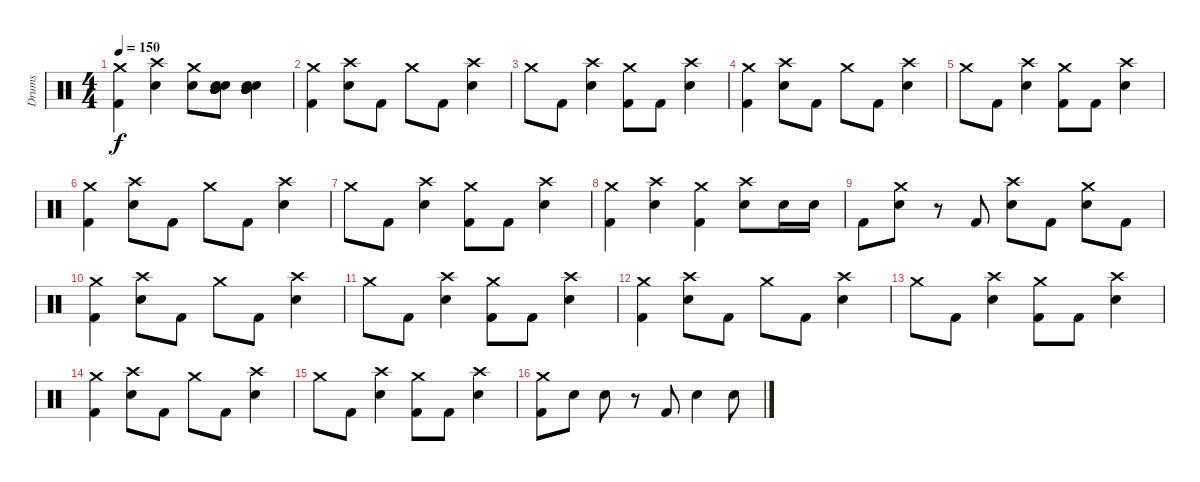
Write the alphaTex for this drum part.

\track ("Drums" "Drums") {instrument percussion}
\staff {score}
\articulation defaults
\ts (4 4)
\tempo 150
\clef neutral
\ks c
("Crash medium (hit)" "Kick (hit) 2").4{dy f} ("Crash high (hit)" "Snare (hit) 2").4 ("Crash medium (hit)" "Snare (hit) 2").8 ("Snare (hit) 2" "Electric Snare (hit)" "Mid Tom (hit)" "Mid Tom (hit)" "Mid Tom (hit)").8 ("Snare (hit) 2" "Electric Snare (hit)" "Mid Tom (hit)" "Mid Tom (hit)" "Mid Tom (hit)").4 |
("Crash medium (hit)" "Kick (hit) 2").4 ("Crash high (hit)" "Snare (hit) 2").8 "Kick (hit) 2".8 "Crash medium (hit)".8 "Kick (hit) 2".8 ("Crash high (hit)" "Snare (hit) 2").4 |
"Crash medium (hit)".8 "Kick (hit) 2".8 ("Crash high (hit)" "Snare (hit) 2").4 ("Crash medium (hit)" "Kick (hit) 2").8 "Kick (hit) 2".8 ("Crash high (hit)" "Snare (hit) 2").4 |
("Crash medium (hit)" "Kick (hit) 2").4 ("Crash high (hit)" "Snare (hit) 2").8 "Kick (hit) 2".8 "Crash medium (hit)".8 "Kick (hit) 2".8 ("Crash high (hit)" "Snare (hit) 2").4 |
"Crash medium (hit)".8 "Kick (hit) 2".8 ("Crash high (hit)" "Snare (hit) 2").4 ("Crash medium (hit)" "Kick (hit) 2").8 "Kick (hit) 2".8 ("Crash high (hit)" "Snare (hit) 2").4 |
("Crash medium (hit)" "Kick (hit) 2").4 ("Crash high (hit)" "Snare (hit) 2").8 "Kick (hit) 2".8 "Crash medium (hit)".8 "Kick (hit) 2".8 ("Crash high (hit)" "Snare (hit) 2").4 |
"Crash medium (hit)".8 "Kick (hit) 2".8 ("Crash high (hit)" "Snare (hit) 2").4 ("Crash medium (hit)" "Kick (hit) 2").8 "Kick (hit) 2".8 ("Crash high (hit)" "Snare (hit) 2").4 |
("Crash medium (hit)" "Kick (hit) 2").4 ("Crash high (hit)" "Snare (hit) 2").4 ("Crash medium (hit)" "Kick (hit) 2").4 ("Crash high (hit)" "Snare (hit) 2").8 "Snare (hit) 2".16 "Snare (hit) 2".16 |
"Kick (hit) 2".8 ("Crash medium (hit)" "Snare (hit) 2").8 r.8 "Kick (hit) 2".8 ("Crash high (hit)" "Snare (hit) 2").8 "Kick (hit) 2".8 ("Crash medium (hit)" "Snare (hit) 2").8 "Kick (hit) 2".8 |
("Crash medium (hit)" "Kick (hit) 2").4 ("Crash high (hit)" "Snare (hit) 2").8 "Kick (hit) 2".8 "Crash medium (hit)".8 "Kick (hit) 2".8 ("Crash high (hit)" "Snare (hit) 2").4 |
"Crash medium (hit)".8 "Kick (hit) 2".8 ("Crash high (hit)" "Snare (hit) 2").4 ("Crash medium (hit)" "Kick (hit) 2").8 "Kick (hit) 2".8 ("Crash high (hit)" "Snare (hit) 2").4 |
("Crash medium (hit)" "Kick (hit) 2").4 ("Crash high (hit)" "Snare (hit) 2").8 "Kick (hit) 2".8 "Crash medium (hit)".8 "Kick (hit) 2".8 ("Crash high (hit)" "Snare (hit) 2").4 |
"Crash medium (hit)".8 "Kick (hit) 2".8 ("Crash high (hit)" "Snare (hit) 2").4 ("Crash medium (hit)" "Kick (hit) 2").8 "Kick (hit) 2".8 ("Crash high (hit)" "Snare (hit) 2").4 |
("Crash medium (hit)" "Kick (hit) 2").4 ("Crash high (hit)" "Snare (hit) 2").8 "Kick (hit) 2".8 "Crash medium (hit)".8 "Kick (hit) 2".8 ("Crash high (hit)" "Snare (hit) 2").4 |
"Crash medium (hit)".8 "Kick (hit) 2".8 ("Crash high (hit)" "Snare (hit) 2").4 ("Crash medium (hit)" "Kick (hit) 2").8 "Kick (hit) 2".8 ("Crash high (hit)" "Snare (hit) 2").4 |
("Crash medium (hit)" "Kick (hit) 2").8 "Electric Snare (hit)".8 "Electric Snare (hit)".8 r.8 "Kick (hit) 2".8 "Snare (hit) 2".4 "Snare (hit) 2".8
